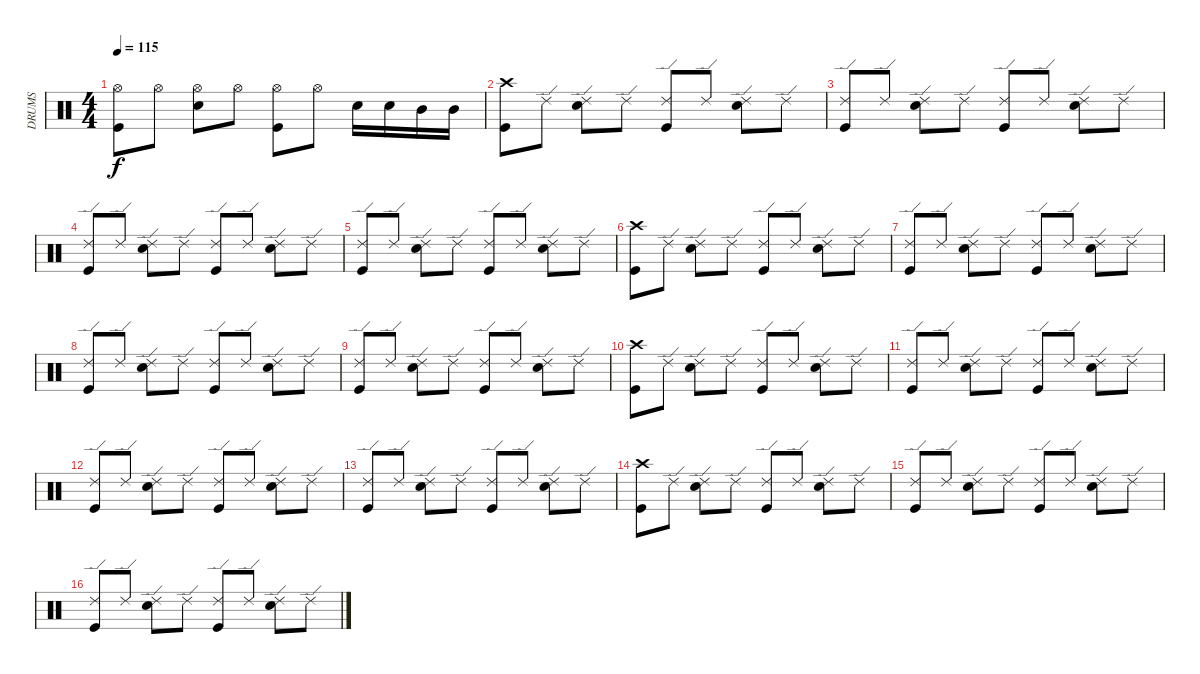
\track ("DRUMS" "DRUMS") {instrument percussion}
\staff {score}
\articulation defaults
\ts (4 4)
\tempo 115
\clef neutral
\ks c
("Hi-Hat (open)" "Kick (hit)").8{dy f} "Hi-Hat (open)".8 ("Hi-Hat (open)" "Snare (hit) 2").8 "Hi-Hat (open)".8 ("Hi-Hat (open)" "Kick (hit)").8 "Hi-Hat (open)".8 "Snare (hit) 2".16 "Snare (hit) 2".16 "Mid Tom (hit)".16 "Mid Tom (hit)".16 |
("Crash high (hit)" "Kick (hit)").8 "Ride (edge) 2".8 ("Ride (edge) 2" "Snare (hit) 2").8 "Ride (edge) 2".8 ("Ride (edge) 2" "Kick (hit)").8 "Ride (edge) 2".8 ("Ride (edge) 2" "Snare (hit) 2").8 "Ride (edge) 2".8 |
("Ride (edge) 2" "Kick (hit)").8 "Ride (edge) 2".8 ("Ride (edge) 2" "Snare (hit) 2").8 "Ride (edge) 2".8 ("Ride (edge) 2" "Kick (hit)").8 "Ride (edge) 2".8 ("Ride (edge) 2" "Snare (hit) 2").8 "Ride (edge) 2".8 |
("Ride (edge) 2" "Kick (hit)").8 "Ride (edge) 2".8 ("Ride (edge) 2" "Snare (hit) 2").8 "Ride (edge) 2".8 ("Ride (edge) 2" "Kick (hit)").8 "Ride (edge) 2".8 ("Ride (edge) 2" "Snare (hit) 2").8 "Ride (edge) 2".8 |
("Ride (edge) 2" "Kick (hit)").8 "Ride (edge) 2".8 ("Ride (edge) 2" "Snare (hit) 2").8 "Ride (edge) 2".8 ("Ride (edge) 2" "Kick (hit)").8 "Ride (edge) 2".8 ("Ride (edge) 2" "Snare (hit) 2").8 "Ride (edge) 2".8 |
("Crash high (hit)" "Kick (hit)").8 "Ride (edge) 2".8 ("Ride (edge) 2" "Snare (hit) 2").8 "Ride (edge) 2".8 ("Ride (edge) 2" "Kick (hit)").8 "Ride (edge) 2".8 ("Ride (edge) 2" "Snare (hit) 2").8 "Ride (edge) 2".8 |
("Ride (edge) 2" "Kick (hit)").8 "Ride (edge) 2".8 ("Ride (edge) 2" "Snare (hit) 2").8 "Ride (edge) 2".8 ("Ride (edge) 2" "Kick (hit)").8 "Ride (edge) 2".8 ("Ride (edge) 2" "Snare (hit) 2").8 "Ride (edge) 2".8 |
("Ride (edge) 2" "Kick (hit)").8 "Ride (edge) 2".8 ("Ride (edge) 2" "Snare (hit) 2").8 "Ride (edge) 2".8 ("Ride (edge) 2" "Kick (hit)").8 "Ride (edge) 2".8 ("Ride (edge) 2" "Snare (hit) 2").8 "Ride (edge) 2".8 |
("Ride (edge) 2" "Kick (hit)").8 "Ride (edge) 2".8 ("Ride (edge) 2" "Snare (hit) 2").8 "Ride (edge) 2".8 ("Ride (edge) 2" "Kick (hit)").8 "Ride (edge) 2".8 ("Ride (edge) 2" "Snare (hit) 2").8 "Ride (edge) 2".8 |
("Crash high (hit)" "Kick (hit)").8 "Ride (edge) 2".8 ("Ride (edge) 2" "Snare (hit) 2").8 "Ride (edge) 2".8 ("Ride (edge) 2" "Kick (hit)").8 "Ride (edge) 2".8 ("Ride (edge) 2" "Snare (hit) 2").8 "Ride (edge) 2".8 |
("Ride (edge) 2" "Kick (hit)").8 "Ride (edge) 2".8 ("Ride (edge) 2" "Snare (hit) 2").8 "Ride (edge) 2".8 ("Ride (edge) 2" "Kick (hit)").8 "Ride (edge) 2".8 ("Ride (edge) 2" "Snare (hit) 2").8 "Ride (edge) 2".8 |
("Ride (edge) 2" "Kick (hit)").8 "Ride (edge) 2".8 ("Ride (edge) 2" "Snare (hit) 2").8 "Ride (edge) 2".8 ("Ride (edge) 2" "Kick (hit)").8 "Ride (edge) 2".8 ("Ride (edge) 2" "Snare (hit) 2").8 "Ride (edge) 2".8 |
("Ride (edge) 2" "Kick (hit)").8 "Ride (edge) 2".8 ("Ride (edge) 2" "Snare (hit) 2").8 "Ride (edge) 2".8 ("Ride (edge) 2" "Kick (hit)").8 "Ride (edge) 2".8 ("Ride (edge) 2" "Snare (hit) 2").8 "Ride (edge) 2".8 |
("Crash high (hit)" "Kick (hit)").8 "Ride (edge) 2".8 ("Ride (edge) 2" "Snare (hit) 2").8 "Ride (edge) 2".8 ("Ride (edge) 2" "Kick (hit)").8 "Ride (edge) 2".8 ("Ride (edge) 2" "Snare (hit) 2").8 "Ride (edge) 2".8 |
("Ride (edge) 2" "Kick (hit)").8 "Ride (edge) 2".8 ("Ride (edge) 2" "Snare (hit) 2").8 "Ride (edge) 2".8 ("Ride (edge) 2" "Kick (hit)").8 "Ride (edge) 2".8 ("Ride (edge) 2" "Snare (hit) 2").8 "Ride (edge) 2".8 |
("Ride (edge) 2" "Kick (hit)").8 "Ride (edge) 2".8 ("Ride (edge) 2" "Snare (hit) 2").8 "Ride (edge) 2".8 ("Ride (edge) 2" "Kick (hit)").8 "Ride (edge) 2".8 ("Ride (edge) 2" "Snare (hit) 2").8 "Ride (edge) 2".8
